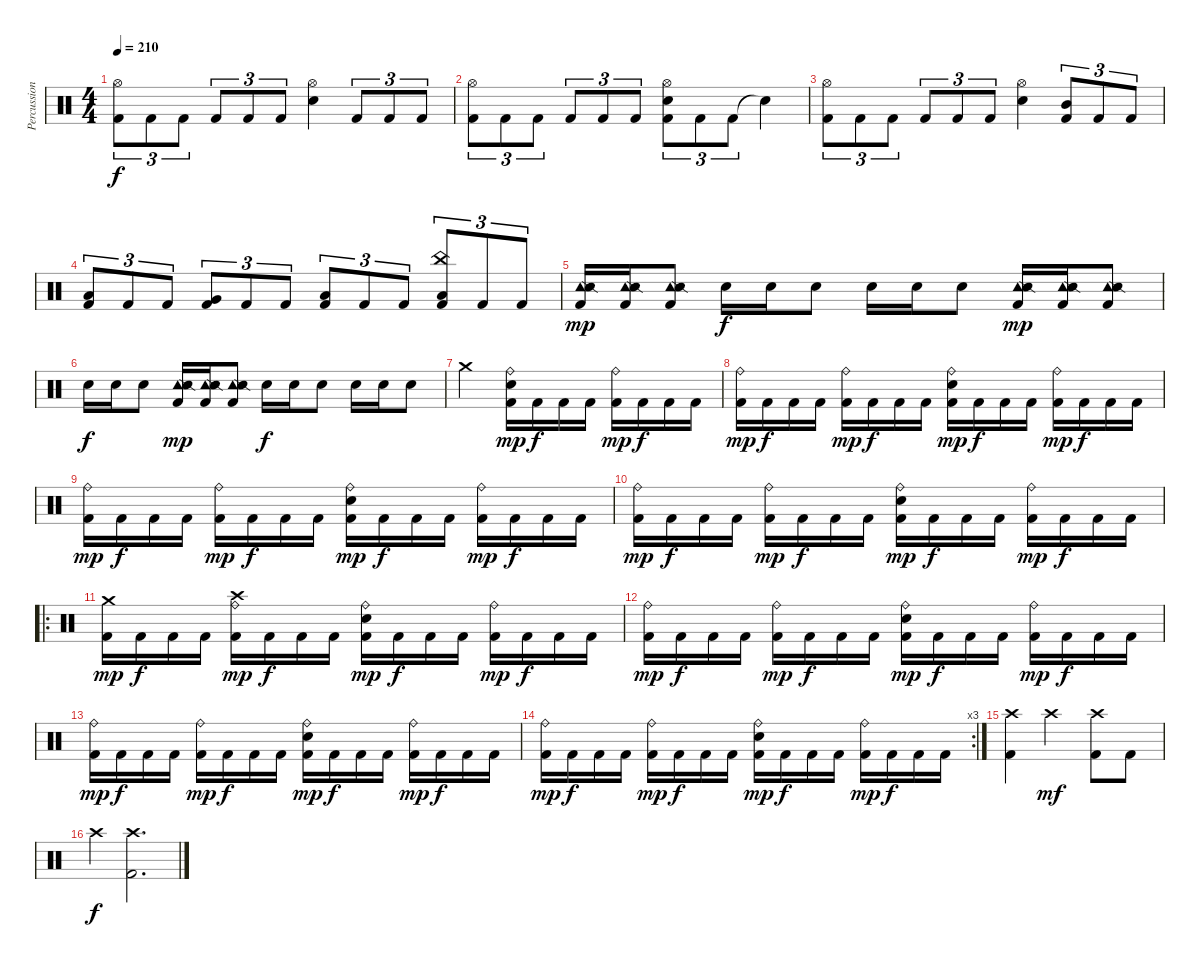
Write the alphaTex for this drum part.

\track ("Percussion" "Percussion") {instrument percussion}
\staff {score}
\articulation defaults
\ts (4 4)
\tempo 210
\clef neutral
\ks c
("Hi-Hat (open)" "Kick (hit) 2").8{tu (3 2) dy f} "Kick (hit) 2".8{tu (3 2)} "Kick (hit) 2".8{tu (3 2)} "Kick (hit) 2".8{tu (3 2)} "Kick (hit) 2".8{tu (3 2)} "Kick (hit) 2".8{tu (3 2)} ("Hi-Hat (open)" "Electric Snare (hit)").4 "Kick (hit) 2".8{tu (3 2)} "Kick (hit) 2".8{tu (3 2)} "Kick (hit) 2".8{tu (3 2)} |
("Hi-Hat (open)" "Kick (hit) 2").8{tu (3 2)} "Kick (hit) 2".8{tu (3 2)} "Kick (hit) 2".8{tu (3 2)} "Kick (hit) 2".8{tu (3 2)} "Kick (hit) 2".8{tu (3 2)} "Kick (hit) 2".8{tu (3 2)} ("Hi-Hat (open)" "Electric Snare (hit)" "Kick (hit) 2").8{tu (3 2)} "Kick (hit) 2".8{tu (3 2)} "Kick (hit) 2".8{tu (3 2)} "Snare (hit)"{t}.4 |
("Hi-Hat (open)" "Kick (hit) 2").8{tu (3 2)} "Kick (hit) 2".8{tu (3 2)} "Kick (hit) 2".8{tu (3 2)} "Kick (hit) 2".8{tu (3 2)} "Kick (hit) 2".8{tu (3 2)} "Kick (hit) 2".8{tu (3 2)} ("Hi-Hat (open)" "Electric Snare (hit)").4 ("Mid Tom (hit)" "Kick (hit) 2").8{tu (3 2)} "Kick (hit) 2".8{tu (3 2)} "Kick (hit) 2".8{tu (3 2)} |
("Low Tom (hit)" "Kick (hit) 2").8{tu (3 2)} "Kick (hit) 2".8{tu (3 2)} "Kick (hit) 2".8{tu (3 2)} ("Very Low Tom (hit)" "Kick (hit) 2").8{tu (3 2)} "Kick (hit) 2".8{tu (3 2)} "Kick (hit) 2".8{tu (3 2)} ("Low Tom (hit)" "Kick (hit) 2").8{tu (3 2)} "Kick (hit) 2".8{tu (3 2)} "Kick (hit) 2".8{tu (3 2)} ("China (hit)" "Low Floor Tom (hit)" "Kick (hit) 2").8{tu (3 2)} "Kick (hit) 2".8{tu (3 2)} "Kick (hit) 2".8{tu (3 2)} |
("Tambourine (hit)" "Snare (side stick) 2" "Kick (hit) 2").16{dy mp} ("Tambourine (hit)" "Snare (side stick) 2" "Kick (hit) 2").16 ("Tambourine (hit)" "Snare (side stick) 2" "Kick (hit) 2").8 "Electric Snare (hit)".16{dy f} "Electric Snare (hit)".16 "Electric Snare (hit)".8 "Electric Snare (hit)".16 "Electric Snare (hit)".16 "Electric Snare (hit)".8 ("Tambourine (hit)" "Snare (side stick) 2" "Kick (hit) 2").16{dy mp} ("Tambourine (hit)" "Snare (side stick) 2" "Kick (hit) 2").16 ("Tambourine (hit)" "Snare (side stick) 2" "Kick (hit) 2").8 |
"Electric Snare (hit)".16{dy f} "Electric Snare (hit)".16 "Electric Snare (hit)".8 ("Tambourine (hit)" "Snare (side stick) 2" "Kick (hit) 2").16{dy mp} ("Tambourine (hit)" "Snare (side stick) 2" "Kick (hit) 2").16 ("Tambourine (hit)" "Snare (side stick) 2" "Kick (hit) 2").8 "Electric Snare (hit)".16{dy f} "Electric Snare (hit)".16 "Electric Snare (hit)".8 "Electric Snare (hit)".16 "Electric Snare (hit)".16 "Electric Snare (hit)".8 |
"Crash medium (hit)".2 ("Ride (bell)" "Electric Snare (hit)" "Kick (hit) 2").16{dy mp} "Kick (hit) 2".16{dy f} "Kick (hit) 2".16 "Kick (hit) 2".16 ("Ride (bell)" "Kick (hit) 2").16{dy mp} "Kick (hit) 2".16{dy f} "Kick (hit) 2".16 "Kick (hit) 2".16 |
("Ride (bell)" "Kick (hit) 2").16{dy mp} "Kick (hit) 2".16{dy f} "Kick (hit) 2".16 "Kick (hit) 2".16 ("Ride (bell)" "Kick (hit) 2").16{dy mp} "Kick (hit) 2".16{dy f} "Kick (hit) 2".16 "Kick (hit) 2".16 ("Ride (bell)" "Electric Snare (hit)" "Kick (hit) 2").16{dy mp} "Kick (hit) 2".16{dy f} "Kick (hit) 2".16 "Kick (hit) 2".16 ("Ride (bell)" "Kick (hit) 2").16{dy mp} "Kick (hit) 2".16{dy f} "Kick (hit) 2".16 "Kick (hit) 2".16 |
("Ride (bell)" "Kick (hit) 2").16{dy mp} "Kick (hit) 2".16{dy f} "Kick (hit) 2".16 "Kick (hit) 2".16 ("Ride (bell)" "Kick (hit) 2").16{dy mp} "Kick (hit) 2".16{dy f} "Kick (hit) 2".16 "Kick (hit) 2".16 ("Ride (bell)" "Electric Snare (hit)" "Kick (hit) 2").16{dy mp} "Kick (hit) 2".16{dy f} "Kick (hit) 2".16 "Kick (hit) 2".16 ("Ride (bell)" "Kick (hit) 2").16{dy mp} "Kick (hit) 2".16{dy f} "Kick (hit) 2".16 "Kick (hit) 2".16 |
("Ride (bell)" "Kick (hit) 2").16{dy mp} "Kick (hit) 2".16{dy f} "Kick (hit) 2".16 "Kick (hit) 2".16 ("Ride (bell)" "Kick (hit) 2").16{dy mp} "Kick (hit) 2".16{dy f} "Kick (hit) 2".16 "Kick (hit) 2".16 ("Ride (bell)" "Electric Snare (hit)" "Kick (hit) 2").16{dy mp} "Kick (hit) 2".16{dy f} "Kick (hit) 2".16 "Kick (hit) 2".16 ("Ride (bell)" "Kick (hit) 2").16{dy mp} "Kick (hit) 2".16{dy f} "Kick (hit) 2".16 "Kick (hit) 2".16 |
\ro
("Crash medium (hit)" "Kick (hit) 2").16{dy mp} "Kick (hit) 2".16{dy f} "Kick (hit) 2".16 "Kick (hit) 2".16 ("Ride (bell)" "Crash high (hit)" "Kick (hit) 2").16{dy mp} "Kick (hit) 2".16{dy f} "Kick (hit) 2".16 "Kick (hit) 2".16 ("Ride (bell)" "Electric Snare (hit)" "Kick (hit) 2").16{dy mp} "Kick (hit) 2".16{dy f} "Kick (hit) 2".16 "Kick (hit) 2".16 ("Ride (bell)" "Kick (hit) 2").16{dy mp} "Kick (hit) 2".16{dy f} "Kick (hit) 2".16 "Kick (hit) 2".16 |
("Ride (bell)" "Kick (hit) 2").16{dy mp} "Kick (hit) 2".16{dy f} "Kick (hit) 2".16 "Kick (hit) 2".16 ("Ride (bell)" "Kick (hit) 2").16{dy mp} "Kick (hit) 2".16{dy f} "Kick (hit) 2".16 "Kick (hit) 2".16 ("Ride (bell)" "Electric Snare (hit)" "Kick (hit) 2").16{dy mp} "Kick (hit) 2".16{dy f} "Kick (hit) 2".16 "Kick (hit) 2".16 ("Ride (bell)" "Kick (hit) 2").16{dy mp} "Kick (hit) 2".16{dy f} "Kick (hit) 2".16 "Kick (hit) 2".16 |
("Ride (bell)" "Kick (hit) 2").16{dy mp} "Kick (hit) 2".16{dy f} "Kick (hit) 2".16 "Kick (hit) 2".16 ("Ride (bell)" "Kick (hit) 2").16{dy mp} "Kick (hit) 2".16{dy f} "Kick (hit) 2".16 "Kick (hit) 2".16 ("Ride (bell)" "Electric Snare (hit)" "Kick (hit) 2").16{dy mp} "Kick (hit) 2".16{dy f} "Kick (hit) 2".16 "Kick (hit) 2".16 ("Ride (bell)" "Kick (hit) 2").16{dy mp} "Kick (hit) 2".16{dy f} "Kick (hit) 2".16 "Kick (hit) 2".16 |
\rc 3
("Ride (bell)" "Kick (hit) 2").16{dy mp} "Kick (hit) 2".16{dy f} "Kick (hit) 2".16 "Kick (hit) 2".16 ("Ride (bell)" "Kick (hit) 2").16{dy mp} "Kick (hit) 2".16{dy f} "Kick (hit) 2".16 "Kick (hit) 2".16 ("Ride (bell)" "Electric Snare (hit)" "Kick (hit) 2").16{dy mp} "Kick (hit) 2".16{dy f} "Kick (hit) 2".16 "Kick (hit) 2".16 ("Ride (bell)" "Kick (hit) 2").16{dy mp} "Kick (hit) 2".16{dy f} "Kick (hit) 2".16 "Kick (hit) 2".16 |
("Crash high (hit)" "Kick (hit) 2").4 "Crash high (hit)".2{dy mf} ("Crash high (hit)" "Kick (hit) 2").8 "Kick (hit) 2".8 |
"Crash high (hit)".4{dy f} ("Crash high (hit)" "Kick (hit) 2").2{d}
